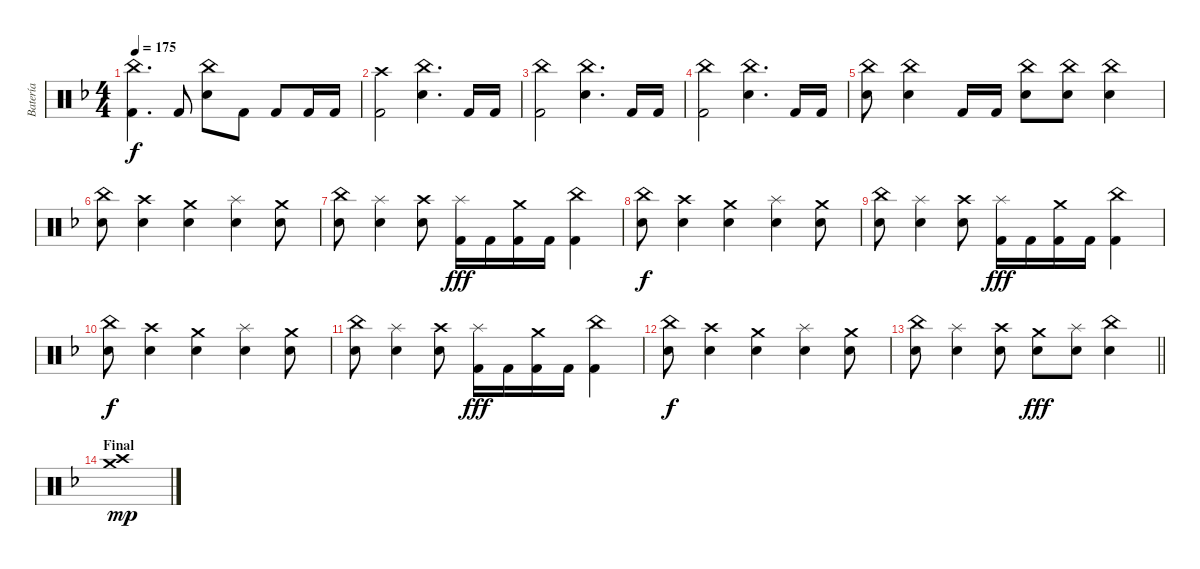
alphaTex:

\track ("Batería" "Batería") {instrument percussion}
\staff {score}
\articulation defaults
\ts (4 4)
\tempo 175
\clef neutral
\ks dminor
("China (hit)" "Kick (hit) 2").4{d dy f} "Kick (hit) 2".8 ("China (hit)" "Snare (hit) 2").8 "Kick (hit) 2".8 "Kick (hit) 2".8 "Kick (hit) 2".16 "Kick (hit) 2".16 |
("Crash high (hit)" "Kick (hit) 2").2 ("China (hit)" "Snare (hit) 2").4{d} "Kick (hit) 2".16 "Kick (hit) 2".16 |
("China (hit)" "Kick (hit) 2").2 ("China (hit)" "Snare (hit) 2").4{d} "Kick (hit) 2".16 "Kick (hit) 2".16 |
("China (hit)" "Kick (hit) 2").2 ("China (hit)" "Snare (hit) 2").4{d} "Kick (hit) 2".16 "Kick (hit) 2".16 |
("China (hit)" "Snare (hit) 2").8 ("China (hit)" "Snare (hit) 2").4 "Kick (hit) 2".16 "Kick (hit) 2".16 ("China (hit)" "Snare (hit) 2").8 ("China (hit)" "Snare (hit) 2").8 ("China (hit)" "Snare (hit) 2").4 |
("China (hit)" "Snare (hit) 2").8 ("Crash high (hit)" "Snare (hit) 2").4 ("Crash medium (hit)" "Snare (hit) 2").4 ("Splash (hit)" "Snare (hit) 2").4 ("Crash medium (hit)" "Snare (hit) 2").8 |
("China (hit)" "Snare (hit) 2").8 ("Splash (hit)" "Snare (hit) 2").4 ("Crash high (hit)" "Snare (hit) 2").8 ("Splash (hit)" "Kick (hit) 2").16{dy fff} "Kick (hit) 2".16 ("Crash medium (hit)" "Kick (hit) 2").16 "Kick (hit) 2".16 ("China (hit)" "Kick (hit) 2").4 |
("China (hit)" "Snare (hit) 2").8{dy f} ("Crash high (hit)" "Snare (hit) 2").4 ("Crash medium (hit)" "Snare (hit) 2").4 ("Splash (hit)" "Snare (hit) 2").4 ("Crash medium (hit)" "Snare (hit) 2").8 |
("China (hit)" "Snare (hit) 2").8 ("Splash (hit)" "Snare (hit) 2").4 ("Crash high (hit)" "Snare (hit) 2").8 ("Splash (hit)" "Kick (hit) 2").16{dy fff} "Kick (hit) 2".16 ("Crash medium (hit)" "Kick (hit) 2").16 "Kick (hit) 2".16 ("China (hit)" "Kick (hit) 2").4 |
("China (hit)" "Snare (hit) 2").8{dy f} ("Crash high (hit)" "Snare (hit) 2").4 ("Crash medium (hit)" "Snare (hit) 2").4 ("Splash (hit)" "Snare (hit) 2").4 ("Crash medium (hit)" "Snare (hit) 2").8 |
("China (hit)" "Snare (hit) 2").8 ("Splash (hit)" "Snare (hit) 2").4 ("Crash high (hit)" "Snare (hit) 2").8 ("Splash (hit)" "Kick (hit) 2").16{dy fff} "Kick (hit) 2".16 ("Crash medium (hit)" "Kick (hit) 2").16 "Kick (hit) 2".16 ("China (hit)" "Kick (hit) 2").4 |
("China (hit)" "Snare (hit) 2").8{dy f} ("Crash high (hit)" "Snare (hit) 2").4 ("Crash medium (hit)" "Snare (hit) 2").4 ("Splash (hit)" "Snare (hit) 2").4 ("Crash medium (hit)" "Snare (hit) 2").8 |
\barLineRight lightlight
("China (hit)" "Snare (hit) 2").8 ("Splash (hit)" "Snare (hit) 2").4 ("Crash high (hit)" "Snare (hit) 2").8 ("Crash medium (hit)" "Snare (hit) 2").8{dy fff} ("Splash (hit)" "Snare (hit) 2").8 ("China (hit)" "Snare (hit) 2").4 |
\section ("" "Final")
("Crash high (hit)" "Crash medium (hit)").1{dy mp}
